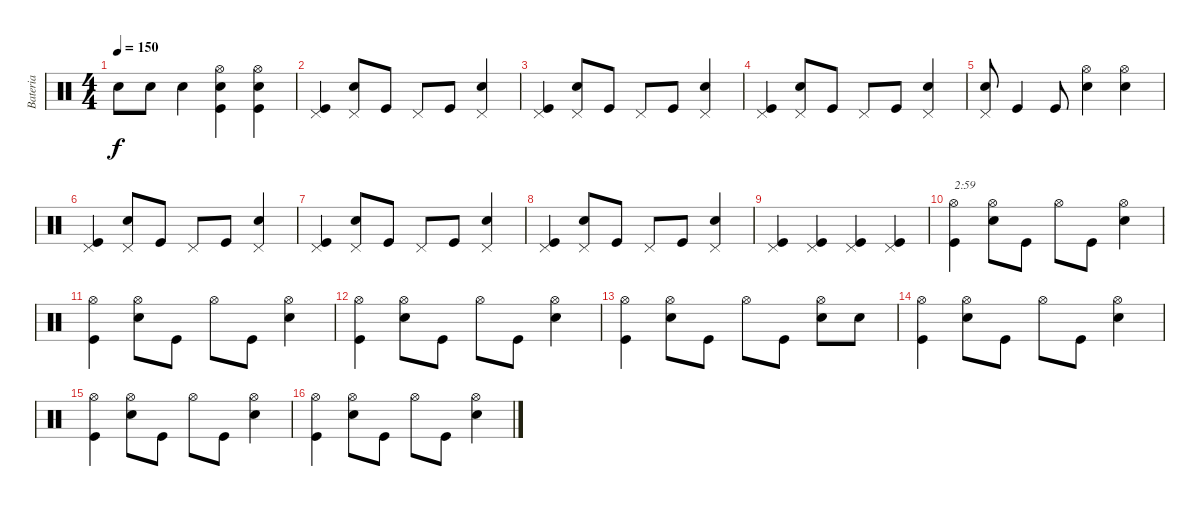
\track ("Bateria" "Bateria") {instrument percussion}
\staff {score}
\articulation defaults
\ts (4 4)
\tempo 150
\clef neutral
\ks c "Snare (hit) 2".8{dy f} "Snare (hit) 2".8 "Snare (hit) 2".4
("Kick (hit)" "Snare (hit) 2" "Hi-Hat (open)").4 ("Kick (hit)" "Snare (hit) 2" "Hi-Hat (open)").4 |
("Kick (hit)" "Pedal Hi-Hat (hit)").4 ("Snare (hit) 2" "Pedal Hi-Hat (hit)").8 "Kick (hit)".8 "Pedal Hi-Hat (hit)".8 "Kick (hit)".8 ("Snare (hit) 2" "Pedal Hi-Hat (hit)").4 |
("Kick (hit)" "Pedal Hi-Hat (hit)").4 ("Snare (hit) 2" "Pedal Hi-Hat (hit)").8 "Kick (hit)".8 "Pedal Hi-Hat (hit)".8 "Kick (hit)".8 ("Snare (hit) 2" "Pedal Hi-Hat (hit)").4 |
("Kick (hit)" "Pedal Hi-Hat (hit)").4 ("Snare (hit) 2" "Pedal Hi-Hat (hit)").8 "Kick (hit)".8 "Pedal Hi-Hat (hit)".8 "Kick (hit)".8 ("Snare (hit) 2" "Pedal Hi-Hat (hit)").4 |
("Snare (hit) 2" "Pedal Hi-Hat (hit)").8 "Kick (hit)".4 "Kick (hit)".8 ("Snare (hit) 2" "Hi-Hat (open)").4 ("Snare (hit) 2" "Hi-Hat (open)").4 |
("Kick (hit)" "Pedal Hi-Hat (hit)").4 ("Snare (hit) 2" "Pedal Hi-Hat (hit)").8 "Kick (hit)".8 "Pedal Hi-Hat (hit)".8 "Kick (hit)".8 ("Snare (hit) 2" "Pedal Hi-Hat (hit)").4 |
("Kick (hit)" "Pedal Hi-Hat (hit)").4 ("Snare (hit) 2" "Pedal Hi-Hat (hit)").8 "Kick (hit)".8 "Pedal Hi-Hat (hit)".8 "Kick (hit)".8 ("Snare (hit) 2" "Pedal Hi-Hat (hit)").4 |
("Kick (hit)" "Pedal Hi-Hat (hit)").4 ("Snare (hit) 2" "Pedal Hi-Hat (hit)").8 "Kick (hit)".8 "Pedal Hi-Hat (hit)".8 "Kick (hit)".8 ("Snare (hit) 2" "Pedal Hi-Hat (hit)").4 |
("Kick (hit)" "Pedal Hi-Hat (hit)").4 ("Kick (hit)" "Pedal Hi-Hat (hit)").4 ("Kick (hit)" "Pedal Hi-Hat (hit)").4 ("Kick (hit)" "Pedal Hi-Hat (hit)").4 |
("Kick (hit)" "Hi-Hat (open)").4{txt "2:59"} ("Snare (hit) 2" "Hi-Hat (open)").8 "Kick (hit)".8 "Hi-Hat (open)".8 "Kick (hit)".8 ("Snare (hit) 2" "Hi-Hat (open)").4 |
("Kick (hit)" "Hi-Hat (open)").4 ("Snare (hit) 2" "Hi-Hat (open)").8 "Kick (hit)".8 "Hi-Hat (open)".8 "Kick (hit)".8 ("Snare (hit) 2" "Hi-Hat (open)").4 |
("Kick (hit)" "Hi-Hat (open)").4 ("Snare (hit) 2" "Hi-Hat (open)").8 "Kick (hit)".8 "Hi-Hat (open)".8 "Kick (hit)".8 ("Snare (hit) 2" "Hi-Hat (open)").4 |
("Kick (hit)" "Hi-Hat (open)").4 ("Snare (hit) 2" "Hi-Hat (open)").8 "Kick (hit)".8 "Hi-Hat (open)".8 "Kick (hit)".8 ("Snare (hit) 2" "Hi-Hat (open)").8 "Snare (hit) 2".8 |
("Kick (hit)" "Hi-Hat (open)").4 ("Snare (hit) 2" "Hi-Hat (open)").8 "Kick (hit)".8 "Hi-Hat (open)".8 "Kick (hit)".8 ("Snare (hit) 2" "Hi-Hat (open)").4 |
("Kick (hit)" "Hi-Hat (open)").4 ("Snare (hit) 2" "Hi-Hat (open)").8 "Kick (hit)".8 "Hi-Hat (open)".8 "Kick (hit)".8 ("Snare (hit) 2" "Hi-Hat (open)").4 |
("Kick (hit)" "Hi-Hat (open)").4 ("Snare (hit) 2" "Hi-Hat (open)").8 "Kick (hit)".8 "Hi-Hat (open)".8 "Kick (hit)".8 ("Snare (hit) 2" "Hi-Hat (open)").4
